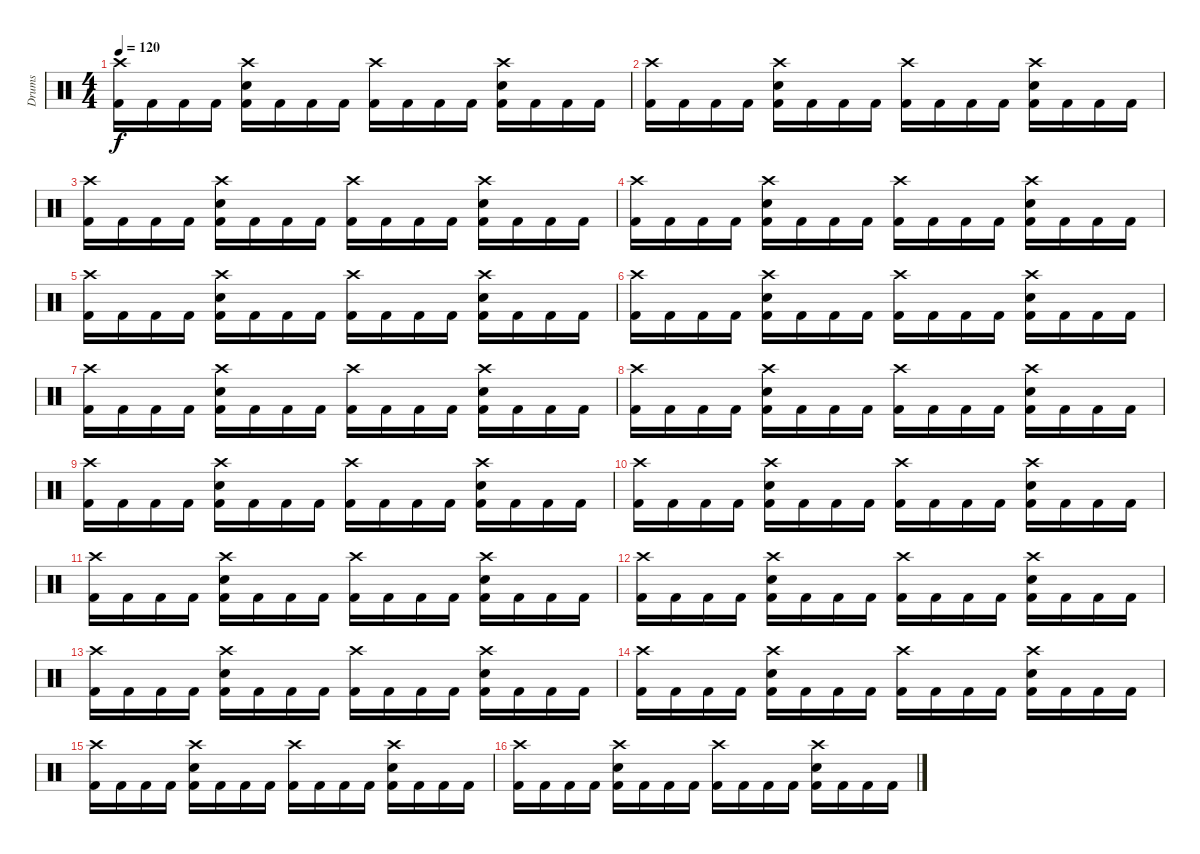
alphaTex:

\track ("Drums" "Drums") {instrument percussion}
\staff {score}
\articulation defaults
\ts (4 4)
\tempo 120
\clef neutral
\ks c
("Crash high (hit)" "Kick (hit) 2").16{dy f} "Kick (hit) 2".16 "Kick (hit) 2".16 "Kick (hit) 2".16 ("Crash high (hit)" "Snare (hit) 2" "Kick (hit) 2").16 "Kick (hit) 2".16 "Kick (hit) 2".16 "Kick (hit) 2".16 ("Crash high (hit)" "Kick (hit) 2").16 "Kick (hit) 2".16 "Kick (hit) 2".16 "Kick (hit) 2".16 ("Crash high (hit)" "Snare (hit) 2" "Kick (hit) 2").16 "Kick (hit) 2".16 "Kick (hit) 2".16 "Kick (hit) 2".16 |
("Crash high (hit)" "Kick (hit) 2").16 "Kick (hit) 2".16 "Kick (hit) 2".16 "Kick (hit) 2".16 ("Crash high (hit)" "Snare (hit) 2" "Kick (hit) 2").16 "Kick (hit) 2".16 "Kick (hit) 2".16 "Kick (hit) 2".16 ("Crash high (hit)" "Kick (hit) 2").16 "Kick (hit) 2".16 "Kick (hit) 2".16 "Kick (hit) 2".16 ("Crash high (hit)" "Snare (hit) 2" "Kick (hit) 2").16 "Kick (hit) 2".16 "Kick (hit) 2".16 "Kick (hit) 2".16 |
("Crash high (hit)" "Kick (hit) 2").16 "Kick (hit) 2".16 "Kick (hit) 2".16 "Kick (hit) 2".16 ("Crash high (hit)" "Snare (hit) 2" "Kick (hit) 2").16 "Kick (hit) 2".16 "Kick (hit) 2".16 "Kick (hit) 2".16 ("Crash high (hit)" "Kick (hit) 2").16 "Kick (hit) 2".16 "Kick (hit) 2".16 "Kick (hit) 2".16 ("Crash high (hit)" "Snare (hit) 2" "Kick (hit) 2").16 "Kick (hit) 2".16 "Kick (hit) 2".16 "Kick (hit) 2".16 |
("Crash high (hit)" "Kick (hit) 2").16 "Kick (hit) 2".16 "Kick (hit) 2".16 "Kick (hit) 2".16 ("Crash high (hit)" "Snare (hit) 2" "Kick (hit) 2").16 "Kick (hit) 2".16 "Kick (hit) 2".16 "Kick (hit) 2".16 ("Crash high (hit)" "Kick (hit) 2").16 "Kick (hit) 2".16 "Kick (hit) 2".16 "Kick (hit) 2".16 ("Crash high (hit)" "Snare (hit) 2" "Kick (hit) 2").16 "Kick (hit) 2".16 "Kick (hit) 2".16 "Kick (hit) 2".16 |
("Crash high (hit)" "Kick (hit) 2").16 "Kick (hit) 2".16 "Kick (hit) 2".16 "Kick (hit) 2".16 ("Crash high (hit)" "Snare (hit) 2" "Kick (hit) 2").16 "Kick (hit) 2".16 "Kick (hit) 2".16 "Kick (hit) 2".16 ("Crash high (hit)" "Kick (hit) 2").16 "Kick (hit) 2".16 "Kick (hit) 2".16 "Kick (hit) 2".16 ("Crash high (hit)" "Snare (hit) 2" "Kick (hit) 2").16 "Kick (hit) 2".16 "Kick (hit) 2".16 "Kick (hit) 2".16 |
("Crash high (hit)" "Kick (hit) 2").16 "Kick (hit) 2".16 "Kick (hit) 2".16 "Kick (hit) 2".16 ("Crash high (hit)" "Snare (hit) 2" "Kick (hit) 2").16 "Kick (hit) 2".16 "Kick (hit) 2".16 "Kick (hit) 2".16 ("Crash high (hit)" "Kick (hit) 2").16 "Kick (hit) 2".16 "Kick (hit) 2".16 "Kick (hit) 2".16 ("Crash high (hit)" "Snare (hit) 2" "Kick (hit) 2").16 "Kick (hit) 2".16 "Kick (hit) 2".16 "Kick (hit) 2".16 |
("Crash high (hit)" "Kick (hit) 2").16 "Kick (hit) 2".16 "Kick (hit) 2".16 "Kick (hit) 2".16 ("Crash high (hit)" "Snare (hit) 2" "Kick (hit) 2").16 "Kick (hit) 2".16 "Kick (hit) 2".16 "Kick (hit) 2".16 ("Crash high (hit)" "Kick (hit) 2").16 "Kick (hit) 2".16 "Kick (hit) 2".16 "Kick (hit) 2".16 ("Crash high (hit)" "Snare (hit) 2" "Kick (hit) 2").16 "Kick (hit) 2".16 "Kick (hit) 2".16 "Kick (hit) 2".16 |
("Crash high (hit)" "Kick (hit) 2").16 "Kick (hit) 2".16 "Kick (hit) 2".16 "Kick (hit) 2".16 ("Crash high (hit)" "Snare (hit) 2" "Kick (hit) 2").16 "Kick (hit) 2".16 "Kick (hit) 2".16 "Kick (hit) 2".16 ("Crash high (hit)" "Kick (hit) 2").16 "Kick (hit) 2".16 "Kick (hit) 2".16 "Kick (hit) 2".16 ("Crash high (hit)" "Snare (hit) 2" "Kick (hit) 2").16 "Kick (hit) 2".16 "Kick (hit) 2".16 "Kick (hit) 2".16 |
("Crash high (hit)" "Kick (hit) 2").16 "Kick (hit) 2".16 "Kick (hit) 2".16 "Kick (hit) 2".16 ("Crash high (hit)" "Snare (hit) 2" "Kick (hit) 2").16 "Kick (hit) 2".16 "Kick (hit) 2".16 "Kick (hit) 2".16 ("Crash high (hit)" "Kick (hit) 2").16 "Kick (hit) 2".16 "Kick (hit) 2".16 "Kick (hit) 2".16 ("Crash high (hit)" "Snare (hit) 2" "Kick (hit) 2").16 "Kick (hit) 2".16 "Kick (hit) 2".16 "Kick (hit) 2".16 |
("Crash high (hit)" "Kick (hit) 2").16 "Kick (hit) 2".16 "Kick (hit) 2".16 "Kick (hit) 2".16 ("Crash high (hit)" "Snare (hit) 2" "Kick (hit) 2").16 "Kick (hit) 2".16 "Kick (hit) 2".16 "Kick (hit) 2".16 ("Crash high (hit)" "Kick (hit) 2").16 "Kick (hit) 2".16 "Kick (hit) 2".16 "Kick (hit) 2".16 ("Crash high (hit)" "Snare (hit) 2" "Kick (hit) 2").16 "Kick (hit) 2".16 "Kick (hit) 2".16 "Kick (hit) 2".16 |
("Crash high (hit)" "Kick (hit) 2").16 "Kick (hit) 2".16 "Kick (hit) 2".16 "Kick (hit) 2".16 ("Crash high (hit)" "Snare (hit) 2" "Kick (hit) 2").16 "Kick (hit) 2".16 "Kick (hit) 2".16 "Kick (hit) 2".16 ("Crash high (hit)" "Kick (hit) 2").16 "Kick (hit) 2".16 "Kick (hit) 2".16 "Kick (hit) 2".16 ("Crash high (hit)" "Snare (hit) 2" "Kick (hit) 2").16 "Kick (hit) 2".16 "Kick (hit) 2".16 "Kick (hit) 2".16 |
("Crash high (hit)" "Kick (hit) 2").16 "Kick (hit) 2".16 "Kick (hit) 2".16 "Kick (hit) 2".16 ("Crash high (hit)" "Snare (hit) 2" "Kick (hit) 2").16 "Kick (hit) 2".16 "Kick (hit) 2".16 "Kick (hit) 2".16 ("Crash high (hit)" "Kick (hit) 2").16 "Kick (hit) 2".16 "Kick (hit) 2".16 "Kick (hit) 2".16 ("Crash high (hit)" "Snare (hit) 2" "Kick (hit) 2").16 "Kick (hit) 2".16 "Kick (hit) 2".16 "Kick (hit) 2".16 |
("Crash high (hit)" "Kick (hit) 2").16 "Kick (hit) 2".16 "Kick (hit) 2".16 "Kick (hit) 2".16 ("Crash high (hit)" "Snare (hit) 2" "Kick (hit) 2").16 "Kick (hit) 2".16 "Kick (hit) 2".16 "Kick (hit) 2".16 ("Crash high (hit)" "Kick (hit) 2").16 "Kick (hit) 2".16 "Kick (hit) 2".16 "Kick (hit) 2".16 ("Crash high (hit)" "Snare (hit) 2" "Kick (hit) 2").16 "Kick (hit) 2".16 "Kick (hit) 2".16 "Kick (hit) 2".16 |
("Crash high (hit)" "Kick (hit) 2").16 "Kick (hit) 2".16 "Kick (hit) 2".16 "Kick (hit) 2".16 ("Crash high (hit)" "Snare (hit) 2" "Kick (hit) 2").16 "Kick (hit) 2".16 "Kick (hit) 2".16 "Kick (hit) 2".16 ("Crash high (hit)" "Kick (hit) 2").16 "Kick (hit) 2".16 "Kick (hit) 2".16 "Kick (hit) 2".16 ("Crash high (hit)" "Snare (hit) 2" "Kick (hit) 2").16 "Kick (hit) 2".16 "Kick (hit) 2".16 "Kick (hit) 2".16 |
("Crash high (hit)" "Kick (hit) 2").16 "Kick (hit) 2".16 "Kick (hit) 2".16 "Kick (hit) 2".16 ("Crash high (hit)" "Snare (hit) 2" "Kick (hit) 2").16 "Kick (hit) 2".16 "Kick (hit) 2".16 "Kick (hit) 2".16 ("Crash high (hit)" "Kick (hit) 2").16 "Kick (hit) 2".16 "Kick (hit) 2".16 "Kick (hit) 2".16 ("Crash high (hit)" "Snare (hit) 2" "Kick (hit) 2").16 "Kick (hit) 2".16 "Kick (hit) 2".16 "Kick (hit) 2".16 |
("Crash high (hit)" "Kick (hit) 2").16 "Kick (hit) 2".16 "Kick (hit) 2".16 "Kick (hit) 2".16 ("Crash high (hit)" "Snare (hit) 2" "Kick (hit) 2").16 "Kick (hit) 2".16 "Kick (hit) 2".16 "Kick (hit) 2".16 ("Crash high (hit)" "Kick (hit) 2").16 "Kick (hit) 2".16 "Kick (hit) 2".16 "Kick (hit) 2".16 ("Crash high (hit)" "Snare (hit) 2" "Kick (hit) 2").16 "Kick (hit) 2".16 "Kick (hit) 2".16 "Kick (hit) 2".16
